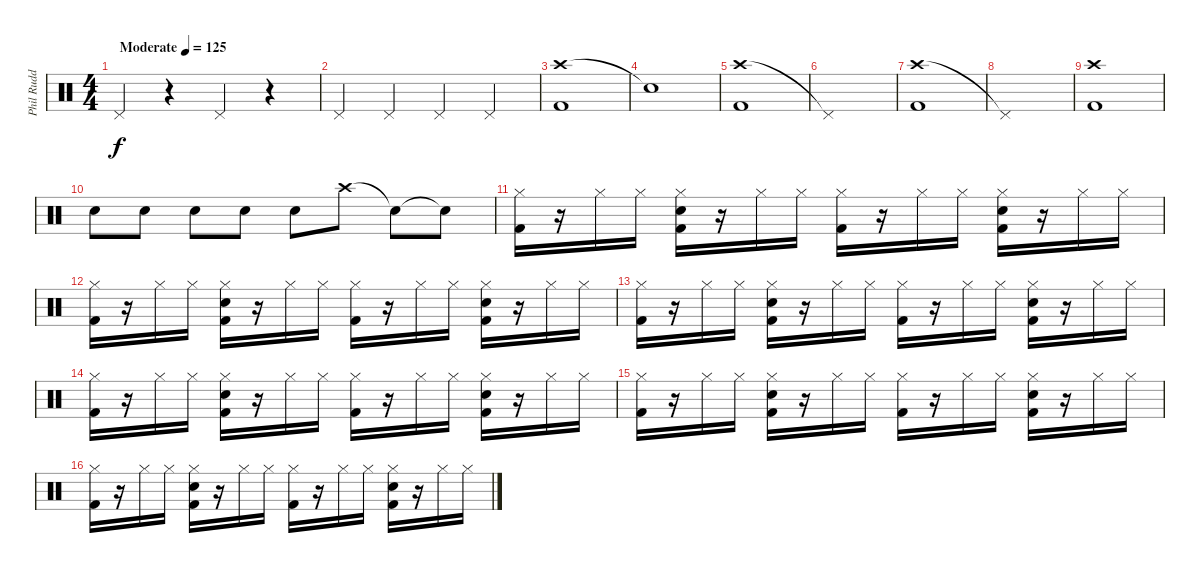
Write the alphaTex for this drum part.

\track ("Phil Rudd" "Phil Rudd") {instrument percussion}
\staff {score}
\articulation defaults
\ts (4 4)
\tempo (125 "Moderate")
\clef neutral
\ks c "Pedal Hi-Hat (hit)".4{dy f}
r.4 "Pedal Hi-Hat (hit)".4 r.4 |
"Pedal Hi-Hat (hit)".4 "Pedal Hi-Hat (hit)".4 "Pedal Hi-Hat (hit)".4 "Pedal Hi-Hat (hit)".4 |
("Crash high (hit)" "Kick (hit) 2").1 |
"Snare (hit)"{t}.1 |
("Crash high (hit)" "Kick (hit) 2").1 |
"Pedal Hi-Hat (hit)"{t}.1 |
("Crash high (hit)" "Kick (hit) 2").1 |
"Pedal Hi-Hat (hit)"{t}.1 |
("Crash high (hit)" "Kick (hit) 2").1 |
"Snare (hit) 2".8 "Snare (hit) 2".8 "Snare (hit) 2".8 "Snare (hit) 2".8 "Snare (hit) 2".8 "Crash high (hit)".8 "Snare (hit)"{t}.8 "Snare (hit)"{t}.8 |
("Hi-Hat (closed)" "Kick (hit) 2").16 r.16 "Hi-Hat (closed)".16 "Hi-Hat (closed)".16 ("Hi-Hat (closed)" "Snare (hit) 2" "Kick (hit) 2").16 r.16 "Hi-Hat (closed)".16 "Hi-Hat (closed)".16 ("Hi-Hat (closed)" "Kick (hit) 2").16 r.16 "Hi-Hat (closed)".16 "Hi-Hat (closed)".16 ("Hi-Hat (closed)" "Snare (hit) 2" "Kick (hit) 2").16 r.16 "Hi-Hat (closed)".16 "Hi-Hat (closed)".16 |
("Hi-Hat (closed)" "Kick (hit) 2").16 r.16 "Hi-Hat (closed)".16 "Hi-Hat (closed)".16 ("Hi-Hat (closed)" "Snare (hit) 2" "Kick (hit) 2").16 r.16 "Hi-Hat (closed)".16 "Hi-Hat (closed)".16 ("Hi-Hat (closed)" "Kick (hit) 2").16 r.16 "Hi-Hat (closed)".16 "Hi-Hat (closed)".16 ("Hi-Hat (closed)" "Snare (hit) 2" "Kick (hit) 2").16 r.16 "Hi-Hat (closed)".16 "Hi-Hat (closed)".16 |
("Hi-Hat (closed)" "Kick (hit) 2").16 r.16 "Hi-Hat (closed)".16 "Hi-Hat (closed)".16 ("Hi-Hat (closed)" "Snare (hit) 2" "Kick (hit) 2").16 r.16 "Hi-Hat (closed)".16 "Hi-Hat (closed)".16 ("Hi-Hat (closed)" "Kick (hit) 2").16 r.16 "Hi-Hat (closed)".16 "Hi-Hat (closed)".16 ("Hi-Hat (closed)" "Snare (hit) 2" "Kick (hit) 2").16 r.16 "Hi-Hat (closed)".16 "Hi-Hat (closed)".16 |
("Hi-Hat (closed)" "Kick (hit) 2").16 r.16 "Hi-Hat (closed)".16 "Hi-Hat (closed)".16 ("Hi-Hat (closed)" "Snare (hit) 2" "Kick (hit) 2").16 r.16 "Hi-Hat (closed)".16 "Hi-Hat (closed)".16 ("Hi-Hat (closed)" "Kick (hit) 2").16 r.16 "Hi-Hat (closed)".16 "Hi-Hat (closed)".16 ("Hi-Hat (closed)" "Snare (hit) 2" "Kick (hit) 2").16 r.16 "Hi-Hat (closed)".16 "Hi-Hat (closed)".16 |
("Hi-Hat (closed)" "Kick (hit) 2").16 r.16 "Hi-Hat (closed)".16 "Hi-Hat (closed)".16 ("Hi-Hat (closed)" "Snare (hit) 2" "Kick (hit) 2").16 r.16 "Hi-Hat (closed)".16 "Hi-Hat (closed)".16 ("Hi-Hat (closed)" "Kick (hit) 2").16 r.16 "Hi-Hat (closed)".16 "Hi-Hat (closed)".16 ("Hi-Hat (closed)" "Snare (hit) 2" "Kick (hit) 2").16 r.16 "Hi-Hat (closed)".16 "Hi-Hat (closed)".16 |
("Hi-Hat (closed)" "Kick (hit) 2").16 r.16 "Hi-Hat (closed)".16 "Hi-Hat (closed)".16 ("Hi-Hat (closed)" "Snare (hit) 2" "Kick (hit) 2").16 r.16 "Hi-Hat (closed)".16 "Hi-Hat (closed)".16 ("Hi-Hat (closed)" "Kick (hit) 2").16 r.16 "Hi-Hat (closed)".16 "Hi-Hat (closed)".16 ("Hi-Hat (closed)" "Snare (hit) 2" "Kick (hit) 2").16 r.16 "Hi-Hat (closed)".16 "Hi-Hat (closed)".16
